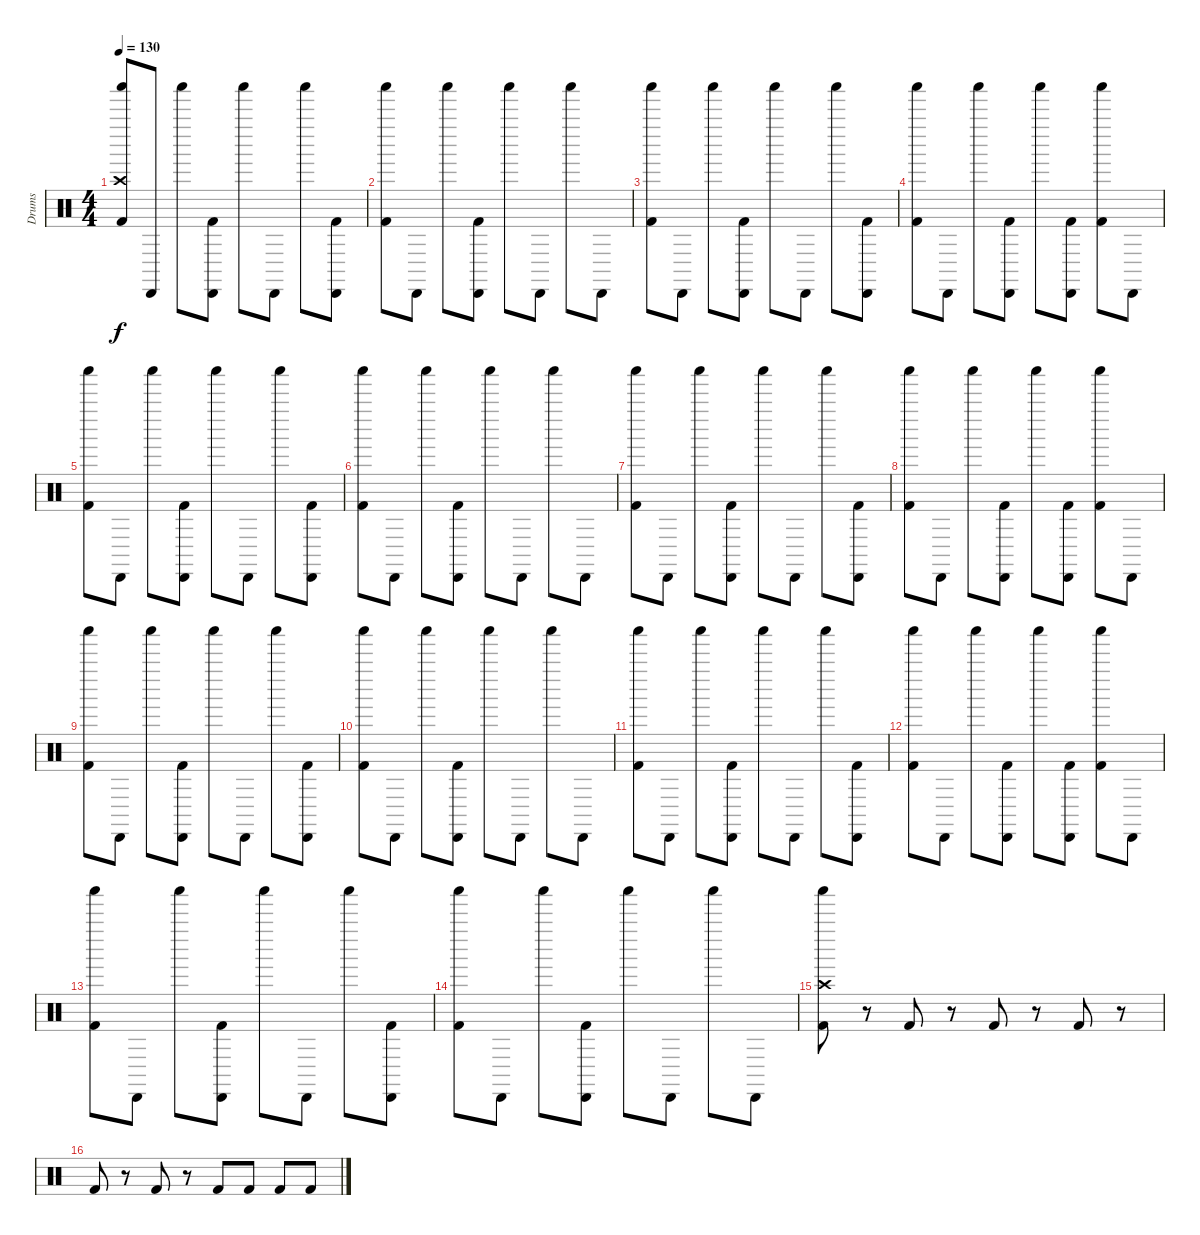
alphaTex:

\track ("Drums" "Drums") {instrument percussion}
\staff {score}
\articulation defaults
\ts (4 4)
\tempo 130
\clef neutral
\ks c
("Crash high (hit)" "Shaker (hit)" "Kick (hit) 2").8{dy f} "Cabasa (hit)".8 "Shaker (hit)".8 ("Cabasa (hit)" "Kick (hit) 2").8 "Shaker (hit)".8 "Cabasa (hit)".8 "Shaker (hit)".8 ("Cabasa (hit)" "Kick (hit) 2").8 |
("Shaker (hit)" "Kick (hit) 2").8 "Cabasa (hit)".8 "Shaker (hit)".8 ("Cabasa (hit)" "Kick (hit) 2").8 "Shaker (hit)".8 "Cabasa (hit)".8 "Shaker (hit)".8 "Cabasa (hit)".8 |
("Shaker (hit)" "Kick (hit) 2").8 "Cabasa (hit)".8 "Shaker (hit)".8 ("Cabasa (hit)" "Kick (hit) 2").8 "Shaker (hit)".8 "Cabasa (hit)".8 "Shaker (hit)".8 ("Cabasa (hit)" "Kick (hit) 2").8 |
("Shaker (hit)" "Kick (hit) 2").8 "Cabasa (hit)".8 "Shaker (hit)".8 ("Cabasa (hit)" "Kick (hit) 2").8 "Shaker (hit)".8 ("Cabasa (hit)" "Kick (hit) 2").8 ("Shaker (hit)" "Kick (hit) 2").8 "Cabasa (hit)".8 |
("Shaker (hit)" "Kick (hit) 2").8 "Cabasa (hit)".8 "Shaker (hit)".8 ("Cabasa (hit)" "Kick (hit) 2").8 "Shaker (hit)".8 "Cabasa (hit)".8 "Shaker (hit)".8 ("Cabasa (hit)" "Kick (hit) 2").8 |
("Shaker (hit)" "Kick (hit) 2").8 "Cabasa (hit)".8 "Shaker (hit)".8 ("Cabasa (hit)" "Kick (hit) 2").8 "Shaker (hit)".8 "Cabasa (hit)".8 "Shaker (hit)".8 "Cabasa (hit)".8 |
("Shaker (hit)" "Kick (hit) 2").8 "Cabasa (hit)".8 "Shaker (hit)".8 ("Cabasa (hit)" "Kick (hit) 2").8 "Shaker (hit)".8 "Cabasa (hit)".8 "Shaker (hit)".8 ("Cabasa (hit)" "Kick (hit) 2").8 |
("Shaker (hit)" "Kick (hit) 2").8 "Cabasa (hit)".8 "Shaker (hit)".8 ("Cabasa (hit)" "Kick (hit) 2").8 "Shaker (hit)".8 ("Cabasa (hit)" "Kick (hit) 2").8 ("Shaker (hit)" "Kick (hit) 2").8 "Cabasa (hit)".8 |
("Shaker (hit)" "Kick (hit) 2").8 "Cabasa (hit)".8 "Shaker (hit)".8 ("Cabasa (hit)" "Kick (hit) 2").8 "Shaker (hit)".8 "Cabasa (hit)".8 "Shaker (hit)".8 ("Cabasa (hit)" "Kick (hit) 2").8 |
("Shaker (hit)" "Kick (hit) 2").8 "Cabasa (hit)".8 "Shaker (hit)".8 ("Cabasa (hit)" "Kick (hit) 2").8 "Shaker (hit)".8 "Cabasa (hit)".8 "Shaker (hit)".8 "Cabasa (hit)".8 |
("Shaker (hit)" "Kick (hit) 2").8 "Cabasa (hit)".8 "Shaker (hit)".8 ("Cabasa (hit)" "Kick (hit) 2").8 "Shaker (hit)".8 "Cabasa (hit)".8 "Shaker (hit)".8 ("Cabasa (hit)" "Kick (hit) 2").8 |
("Shaker (hit)" "Kick (hit) 2").8 "Cabasa (hit)".8 "Shaker (hit)".8 ("Cabasa (hit)" "Kick (hit) 2").8 "Shaker (hit)".8 ("Cabasa (hit)" "Kick (hit) 2").8 ("Shaker (hit)" "Kick (hit) 2").8 "Cabasa (hit)".8 |
("Shaker (hit)" "Kick (hit) 2").8 "Cabasa (hit)".8 "Shaker (hit)".8 ("Cabasa (hit)" "Kick (hit) 2").8 "Shaker (hit)".8 "Cabasa (hit)".8 "Shaker (hit)".8 ("Cabasa (hit)" "Kick (hit) 2").8 |
("Shaker (hit)" "Kick (hit) 2").8 "Cabasa (hit)".8 "Shaker (hit)".8 ("Cabasa (hit)" "Kick (hit) 2").8 "Shaker (hit)".8 "Cabasa (hit)".8 "Shaker (hit)".8 "Cabasa (hit)".8 |
("Crash high (hit)" "Shaker (hit)" "Kick (hit) 2").8 r.8 "Kick (hit) 2".8 r.8 "Kick (hit) 2".8 r.8 "Kick (hit) 2".8 r.8 |
"Kick (hit) 2".8 r.8 "Kick (hit) 2".8 r.8 "Kick (hit) 2".8 "Kick (hit) 2".8 "Kick (hit) 2".8 "Kick (hit) 2".8
